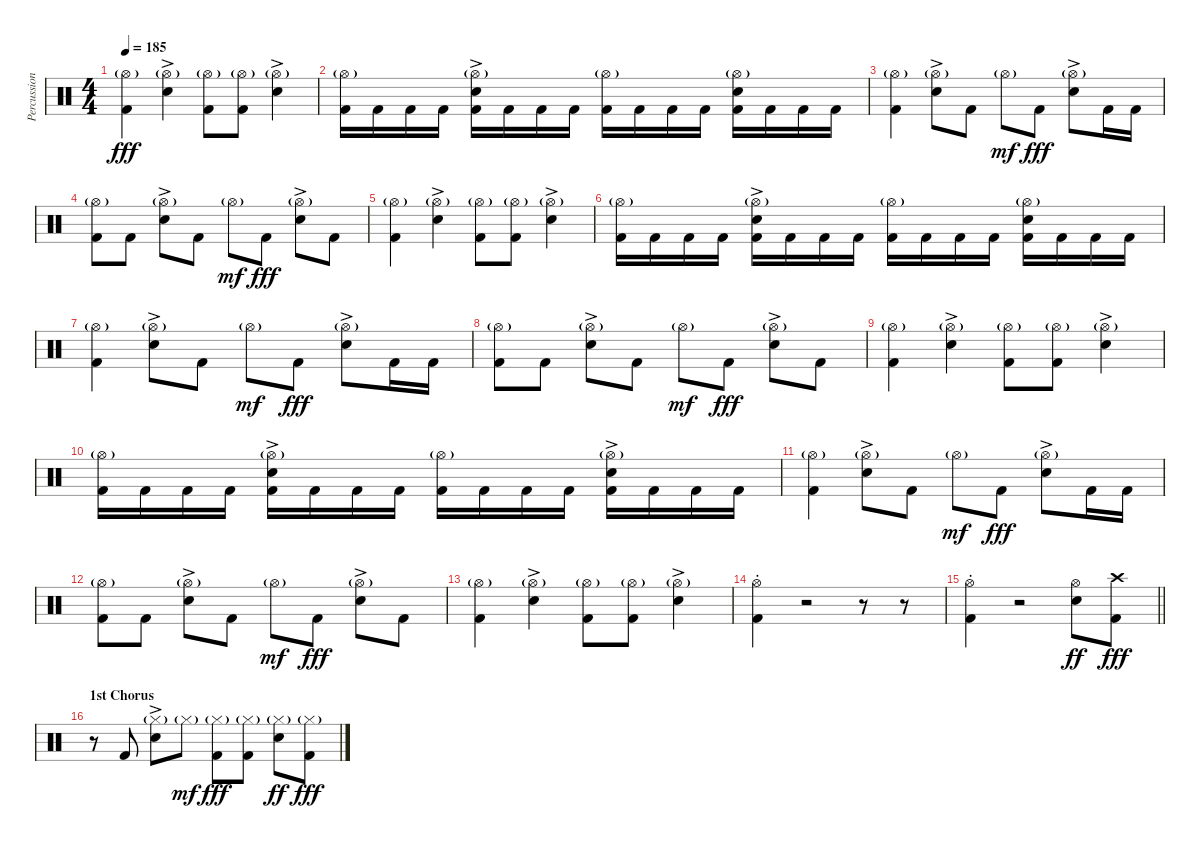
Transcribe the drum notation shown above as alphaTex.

\track ("Percussion , Drums - Travis Smith" "Percussion") {instrument percussion}
\staff {score}
\articulation defaults
\ts (4 4)
\tempo 185
\clef neutral
\ks c
("Hi-Hat (open)"{g} "Kick (hit) 2").4{dy fff} ("Hi-Hat (open)"{g} "Electric Snare (hit)"{ac}).4 ("Hi-Hat (open)"{g} "Kick (hit) 2").8 ("Hi-Hat (open)"{g} "Kick (hit) 2").8 ("Hi-Hat (open)"{g} "Electric Snare (hit)"{ac}).4 |
("Hi-Hat (open)"{g} "Kick (hit) 2").16 "Kick (hit) 2".16 "Kick (hit) 2".16 "Kick (hit) 2".16 ("Hi-Hat (open)"{g} "Electric Snare (hit)"{ac} "Kick (hit) 2").16 "Kick (hit) 2".16 "Kick (hit) 2".16 "Kick (hit) 2".16 ("Hi-Hat (open)"{g} "Kick (hit) 2").16 "Kick (hit) 2".16 "Kick (hit) 2".16 "Kick (hit) 2".16 ("Hi-Hat (open)"{g} "Electric Snare (hit)" "Kick (hit) 2").16 "Kick (hit) 2".16 "Kick (hit) 2".16 "Kick (hit) 2".16 |
("Hi-Hat (open)"{g} "Kick (hit) 2").4 ("Hi-Hat (open)"{g} "Electric Snare (hit)"{ac}).8 "Kick (hit) 2".8 "Hi-Hat (open)"{g}.8{dy mf} "Kick (hit) 2".8{dy fff} ("Hi-Hat (open)"{g} "Electric Snare (hit)"{ac}).8 "Kick (hit) 2".16 "Kick (hit) 2".16 |
("Hi-Hat (open)"{g} "Kick (hit) 2").8 "Kick (hit) 2".8 ("Hi-Hat (open)"{g} "Electric Snare (hit)"{ac}).8 "Kick (hit) 2".8 "Hi-Hat (open)"{g}.8{dy mf} "Kick (hit) 2".8{dy fff} ("Hi-Hat (open)"{g} "Electric Snare (hit)"{ac}).8 "Kick (hit) 2".8 |
("Hi-Hat (open)"{g} "Kick (hit) 2").4 ("Hi-Hat (open)"{g} "Electric Snare (hit)"{ac}).4 ("Hi-Hat (open)"{g} "Kick (hit) 2").8 ("Hi-Hat (open)"{g} "Kick (hit) 2").8 ("Hi-Hat (open)"{g} "Electric Snare (hit)"{ac}).4 |
("Hi-Hat (open)"{g} "Kick (hit) 2").16 "Kick (hit) 2".16 "Kick (hit) 2".16 "Kick (hit) 2".16 ("Hi-Hat (open)"{g} "Electric Snare (hit)"{ac} "Kick (hit) 2").16 "Kick (hit) 2".16 "Kick (hit) 2".16 "Kick (hit) 2".16 ("Hi-Hat (open)"{g} "Kick (hit) 2").16 "Kick (hit) 2".16 "Kick (hit) 2".16 "Kick (hit) 2".16 ("Hi-Hat (open)"{g} "Electric Snare (hit)" "Kick (hit) 2").16 "Kick (hit) 2".16 "Kick (hit) 2".16 "Kick (hit) 2".16 |
("Hi-Hat (open)"{g} "Kick (hit) 2").4 ("Hi-Hat (open)"{g} "Electric Snare (hit)"{ac}).8 "Kick (hit) 2".8 "Hi-Hat (open)"{g}.8{dy mf} "Kick (hit) 2".8{dy fff} ("Hi-Hat (open)"{g} "Electric Snare (hit)"{ac}).8 "Kick (hit) 2".16 "Kick (hit) 2".16 |
("Hi-Hat (open)"{g} "Kick (hit) 2").8 "Kick (hit) 2".8 ("Hi-Hat (open)"{g} "Electric Snare (hit)"{ac}).8 "Kick (hit) 2".8 "Hi-Hat (open)"{g}.8{dy mf} "Kick (hit) 2".8{dy fff} ("Hi-Hat (open)"{g} "Electric Snare (hit)"{ac}).8 "Kick (hit) 2".8 |
("Hi-Hat (open)"{g} "Kick (hit) 2").4 ("Hi-Hat (open)"{g} "Electric Snare (hit)"{ac}).4 ("Hi-Hat (open)"{g} "Kick (hit) 2").8 ("Hi-Hat (open)"{g} "Kick (hit) 2").8 ("Hi-Hat (open)"{g} "Electric Snare (hit)"{ac}).4 |
("Hi-Hat (open)"{g} "Kick (hit) 2").16 "Kick (hit) 2".16 "Kick (hit) 2".16 "Kick (hit) 2".16 ("Hi-Hat (open)"{g} "Electric Snare (hit)"{ac} "Kick (hit) 2").16 "Kick (hit) 2".16 "Kick (hit) 2".16 "Kick (hit) 2".16 ("Hi-Hat (open)"{g} "Kick (hit) 2").16 "Kick (hit) 2".16 "Kick (hit) 2".16 "Kick (hit) 2".16 ("Hi-Hat (open)"{g} "Electric Snare (hit)"{ac} "Kick (hit) 2").16 "Kick (hit) 2".16 "Kick (hit) 2".16 "Kick (hit) 2".16 |
("Hi-Hat (open)"{g} "Kick (hit) 2").4 ("Hi-Hat (open)"{g} "Electric Snare (hit)"{ac}).8 "Kick (hit) 2".8 "Hi-Hat (open)"{g}.8{dy mf} "Kick (hit) 2".8{dy fff} ("Hi-Hat (open)"{g} "Electric Snare (hit)"{ac}).8 "Kick (hit) 2".16 "Kick (hit) 2".16 |
("Hi-Hat (open)"{g} "Kick (hit) 2").8 "Kick (hit) 2".8 ("Hi-Hat (open)"{g} "Electric Snare (hit)"{ac}).8 "Kick (hit) 2".8 "Hi-Hat (open)"{g}.8{dy mf} "Kick (hit) 2".8{dy fff} ("Hi-Hat (open)"{g} "Electric Snare (hit)"{ac}).8 "Kick (hit) 2".8 |
("Hi-Hat (open)"{g} "Kick (hit) 2").4 ("Hi-Hat (open)"{g} "Electric Snare (hit)"{ac}).4 ("Hi-Hat (open)"{g} "Kick (hit) 2").8 ("Hi-Hat (open)"{g} "Kick (hit) 2").8 ("Hi-Hat (open)"{g} "Electric Snare (hit)"{ac}).4 |
("Hi-Hat (open)" "Kick (hit) 2"{st}).4{volume 0} r.2 r.8 r.8{volume 16} |
\barLineRight lightlight
("Hi-Hat (open)" "Kick (hit) 2"{st}).4{volume 0} r.2 ("Hi-Hat (open)" "Electric Snare (hit)").8{dy ff volume 16} ("Crash high (hit)" "Kick (hit) 2").8{dy fff} |
\section ("" "1st Chorus")
r.8 "Kick (hit) 2".8 ("Hi-Hat (closed)"{g} "Electric Snare (hit)"{ac}).8 "Hi-Hat (closed)"{g}.8{dy mf} ("Hi-Hat (closed)"{g} "Kick (hit) 2").8{dy fff} ("Hi-Hat (closed)"{g} "Kick (hit) 2").8 ("Hi-Hat (closed)"{g} "Electric Snare (hit)").8{dy ff} ("Hi-Hat (closed)"{g} "Kick (hit) 2").8{dy fff}
